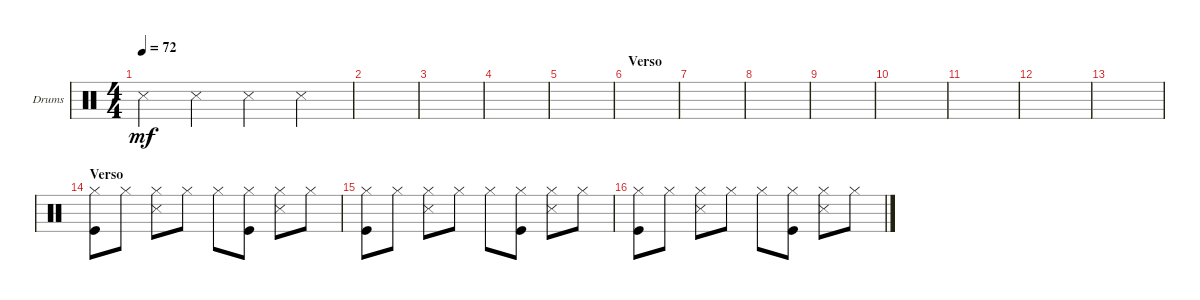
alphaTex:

\defaultSystemsLayout 4
\bracketExtendMode groupsimilarinstruments
\firstSystemTrackNameOrientation horizontal
\otherSystemsTrackNameOrientation horizontal
\track ("Drums" "Drums") {instrument percussion}
\staff {score}
\articulation defaults
\ts (4 4)
\tempo 72
\clef neutral
\ks c "Snare (side stick) 3".4{dy mf} "Snare (side stick) 3".4 "Snare (side stick) 3".4 "Snare (side stick) 3".4
|
|
|
|
|
\section ("" "Verso")
|
|
|
|
|
|
|
|
\section ("" "Verso")
("Kick (hit)" "Hi-Hat (closed)").8 "Hi-Hat (closed)".8 ("Hi-Hat (closed)" "Snare (side stick) 3").8 "Hi-Hat (closed)".8 "Hi-Hat (closed)".8 ("Hi-Hat (closed)" "Kick (hit)").8 ("Hi-Hat (closed)" "Snare (side stick) 3").8 "Hi-Hat (closed)".8 |
("Kick (hit)" "Hi-Hat (closed)").8 "Hi-Hat (closed)".8 ("Hi-Hat (closed)" "Snare (side stick) 3").8 "Hi-Hat (closed)".8 "Hi-Hat (closed)".8 ("Hi-Hat (closed)" "Kick (hit)").8 ("Hi-Hat (closed)" "Snare (side stick) 3").8 "Hi-Hat (closed)".8 |
("Kick (hit)" "Hi-Hat (closed)").8 "Hi-Hat (closed)".8 ("Hi-Hat (closed)" "Snare (side stick) 3").8 "Hi-Hat (closed)".8 "Hi-Hat (closed)".8 ("Hi-Hat (closed)" "Kick (hit)").8 ("Hi-Hat (closed)" "Snare (side stick) 3").8 "Hi-Hat (closed)".8
